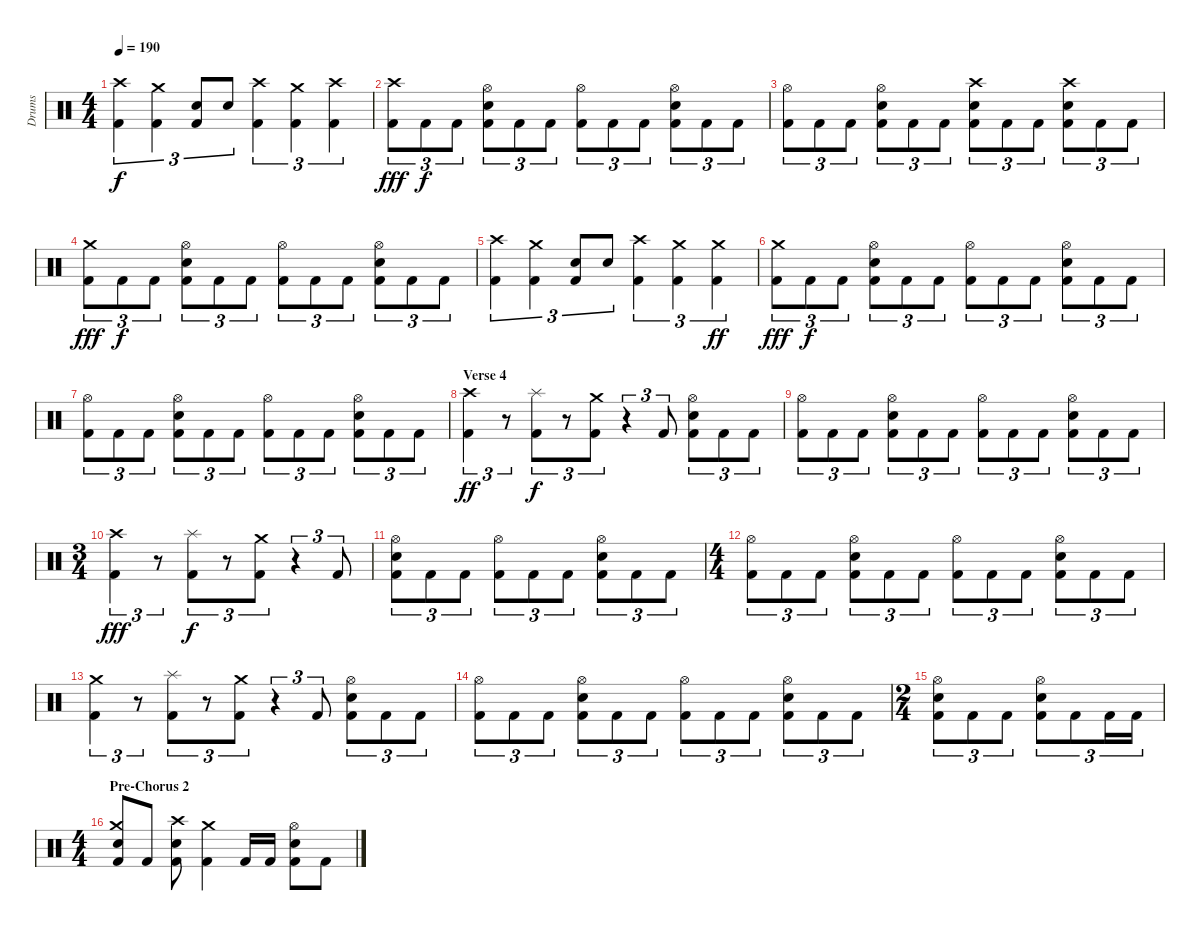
\track ("Drums" "Drums") {instrument percussion}
\staff {score}
\articulation defaults
\ts (4 4)
\tempo 190
\clef neutral
\ks c
("Crash high (hit)" "Kick (hit) 2").4{tu (3 2) dy f} ("Crash medium (hit)" "Kick (hit) 2").4{tu (3 2)} ("Snare (hit) 2" "Kick (hit) 2").8{tu (3 2)} "Snare (hit) 2".8{tu (3 2)} ("Crash high (hit)" "Kick (hit) 2").4{tu (3 2)} ("Crash medium (hit)" "Kick (hit) 2").4{tu (3 2)} ("Crash high (hit)" "Kick (hit) 2").4{tu (3 2)} |
("Crash high (hit)" "Kick (hit) 2").8{tu (3 2) dy fff} "Kick (hit) 2".8{tu (3 2) dy f} "Kick (hit) 2".8{tu (3 2)} ("Hi-Hat (open)" "Snare (hit) 2" "Kick (hit) 2").8{tu (3 2)} "Kick (hit) 2".8{tu (3 2)} "Kick (hit) 2".8{tu (3 2)} ("Hi-Hat (open)" "Kick (hit) 2").8{tu (3 2)} "Kick (hit) 2".8{tu (3 2)} "Kick (hit) 2".8{tu (3 2)} ("Hi-Hat (open)" "Snare (hit) 2" "Kick (hit) 2").8{tu (3 2)} "Kick (hit) 2".8{tu (3 2)} "Kick (hit) 2".8{tu (3 2)} |
("Hi-Hat (open)" "Kick (hit) 2").8{tu (3 2)} "Kick (hit) 2".8{tu (3 2)} "Kick (hit) 2".8{tu (3 2)} ("Hi-Hat (open)" "Snare (hit) 2" "Kick (hit) 2").8{tu (3 2)} "Kick (hit) 2".8{tu (3 2)} "Kick (hit) 2".8{tu (3 2)} ("Crash high (hit)" "Snare (hit) 2" "Kick (hit) 2").8{tu (3 2)} "Kick (hit) 2".8{tu (3 2)} "Kick (hit) 2".8{tu (3 2)} ("Crash high (hit)" "Snare (hit) 2" "Kick (hit) 2").8{tu (3 2)} "Kick (hit) 2".8{tu (3 2)} "Kick (hit) 2".8{tu (3 2)} |
("Crash medium (hit)" "Kick (hit) 2").8{tu (3 2) dy fff} "Kick (hit) 2".8{tu (3 2) dy f} "Kick (hit) 2".8{tu (3 2)} ("Hi-Hat (open)" "Snare (hit) 2" "Kick (hit) 2").8{tu (3 2)} "Kick (hit) 2".8{tu (3 2)} "Kick (hit) 2".8{tu (3 2)} ("Hi-Hat (open)" "Kick (hit) 2").8{tu (3 2)} "Kick (hit) 2".8{tu (3 2)} "Kick (hit) 2".8{tu (3 2)} ("Hi-Hat (open)" "Snare (hit) 2" "Kick (hit) 2").8{tu (3 2)} "Kick (hit) 2".8{tu (3 2)} "Kick (hit) 2".8{tu (3 2)} |
("Crash high (hit)" "Kick (hit) 2").4{tu (3 2)} ("Crash medium (hit)" "Kick (hit) 2").4{tu (3 2)} ("Snare (hit) 2" "Kick (hit) 2").8{tu (3 2)} "Snare (hit) 2".8{tu (3 2)} ("Crash high (hit)" "Kick (hit) 2").4{tu (3 2)} ("Crash medium (hit)" "Kick (hit) 2").4{tu (3 2)} ("Crash medium (hit)" "Kick (hit) 2").4{tu (3 2) dy ff} |
("Crash medium (hit)" "Kick (hit) 2").8{tu (3 2) dy fff} "Kick (hit) 2".8{tu (3 2) dy f} "Kick (hit) 2".8{tu (3 2)} ("Hi-Hat (open)" "Snare (hit) 2" "Kick (hit) 2").8{tu (3 2)} "Kick (hit) 2".8{tu (3 2)} "Kick (hit) 2".8{tu (3 2)} ("Hi-Hat (open)" "Kick (hit) 2").8{tu (3 2)} "Kick (hit) 2".8{tu (3 2)} "Kick (hit) 2".8{tu (3 2)} ("Hi-Hat (open)" "Snare (hit) 2" "Kick (hit) 2").8{tu (3 2)} "Kick (hit) 2".8{tu (3 2)} "Kick (hit) 2".8{tu (3 2)} |
("Hi-Hat (open)" "Kick (hit) 2").8{tu (3 2)} "Kick (hit) 2".8{tu (3 2)} "Kick (hit) 2".8{tu (3 2)} ("Hi-Hat (open)" "Snare (hit) 2" "Kick (hit) 2").8{tu (3 2)} "Kick (hit) 2".8{tu (3 2)} "Kick (hit) 2".8{tu (3 2)} ("Hi-Hat (open)" "Kick (hit) 2").8{tu (3 2)} "Kick (hit) 2".8{tu (3 2)} "Kick (hit) 2".8{tu (3 2)} ("Hi-Hat (open)" "Snare (hit) 2" "Kick (hit) 2").8{tu (3 2)} "Kick (hit) 2".8{tu (3 2)} "Kick (hit) 2".8{tu (3 2)} |
\section ("" "Verse 4")
("Crash high (hit)" "Kick (hit) 2").4{tu (3 2) dy ff} r.8{tu (3 2)} ("Splash (hit)" "Kick (hit) 2").8{tu (3 2) dy f} r.8{tu (3 2)} ("Crash medium (hit)" "Kick (hit) 2").8{tu (3 2)} r.4{tu (3 2)} "Kick (hit) 2".8{tu (3 2)} ("Hi-Hat (open)" "Snare (hit) 2" "Kick (hit) 2").8{tu (3 2)} "Kick (hit) 2".8{tu (3 2)} "Kick (hit) 2".8{tu (3 2)} |
("Hi-Hat (open)" "Kick (hit) 2").8{tu (3 2)} "Kick (hit) 2".8{tu (3 2)} "Kick (hit) 2".8{tu (3 2)} ("Hi-Hat (open)" "Snare (hit) 2" "Kick (hit) 2").8{tu (3 2)} "Kick (hit) 2".8{tu (3 2)} "Kick (hit) 2".8{tu (3 2)} ("Hi-Hat (open)" "Kick (hit) 2").8{tu (3 2)} "Kick (hit) 2".8{tu (3 2)} "Kick (hit) 2".8{tu (3 2)} ("Hi-Hat (open)" "Snare (hit) 2" "Kick (hit) 2").8{tu (3 2)} "Kick (hit) 2".8{tu (3 2)} "Kick (hit) 2".8{tu (3 2)} |
\ts (3 4)
("Crash high (hit)" "Kick (hit) 2").4{tu (3 2) dy fff} r.8{tu (3 2)} ("Splash (hit)" "Kick (hit) 2").8{tu (3 2) dy f} r.8{tu (3 2)} ("Crash medium (hit)" "Kick (hit) 2").8{tu (3 2)} r.4{tu (3 2)} "Kick (hit) 2".8{tu (3 2)} |
("Hi-Hat (open)" "Snare (hit) 2" "Kick (hit) 2").8{tu (3 2)} "Kick (hit) 2".8{tu (3 2)} "Kick (hit) 2".8{tu (3 2)} ("Hi-Hat (open)" "Kick (hit) 2").8{tu (3 2)} "Kick (hit) 2".8{tu (3 2)} "Kick (hit) 2".8{tu (3 2)} ("Hi-Hat (open)" "Snare (hit) 2" "Kick (hit) 2").8{tu (3 2)} "Kick (hit) 2".8{tu (3 2)} "Kick (hit) 2".8{tu (3 2)} |
\ts (4 4)
("Hi-Hat (open)" "Kick (hit) 2").8{tu (3 2)} "Kick (hit) 2".8{tu (3 2)} "Kick (hit) 2".8{tu (3 2)} ("Hi-Hat (open)" "Snare (hit) 2" "Kick (hit) 2").8{tu (3 2)} "Kick (hit) 2".8{tu (3 2)} "Kick (hit) 2".8{tu (3 2)} ("Hi-Hat (open)" "Kick (hit) 2").8{tu (3 2)} "Kick (hit) 2".8{tu (3 2)} "Kick (hit) 2".8{tu (3 2)} ("Hi-Hat (open)" "Snare (hit) 2" "Kick (hit) 2").8{tu (3 2)} "Kick (hit) 2".8{tu (3 2)} "Kick (hit) 2".8{tu (3 2)} |
("Crash medium (hit)" "Kick (hit) 2").4{tu (3 2)} r.8{tu (3 2)} ("Splash (hit)" "Kick (hit) 2").8{tu (3 2)} r.8{tu (3 2)} ("Crash medium (hit)" "Kick (hit) 2").8{tu (3 2)} r.4{tu (3 2)} "Kick (hit) 2".8{tu (3 2)} ("Hi-Hat (open)" "Snare (hit) 2" "Kick (hit) 2").8{tu (3 2)} "Kick (hit) 2".8{tu (3 2)} "Kick (hit) 2".8{tu (3 2)} |
("Hi-Hat (open)" "Kick (hit) 2").8{tu (3 2)} "Kick (hit) 2".8{tu (3 2)} "Kick (hit) 2".8{tu (3 2)} ("Hi-Hat (open)" "Snare (hit) 2" "Kick (hit) 2").8{tu (3 2)} "Kick (hit) 2".8{tu (3 2)} "Kick (hit) 2".8{tu (3 2)} ("Hi-Hat (open)" "Kick (hit) 2").8{tu (3 2)} "Kick (hit) 2".8{tu (3 2)} "Kick (hit) 2".8{tu (3 2)} ("Hi-Hat (open)" "Snare (hit) 2" "Kick (hit) 2").8{tu (3 2)} "Kick (hit) 2".8{tu (3 2)} "Kick (hit) 2".8{tu (3 2)} |
\ts (2 4)
("Hi-Hat (open)" "Snare (hit) 2" "Kick (hit) 2").8{tu (3 2)} "Kick (hit) 2".8{tu (3 2)} "Kick (hit) 2".8{tu (3 2)} ("Hi-Hat (open)" "Snare (hit) 2" "Kick (hit) 2").8{tu (3 2)} "Kick (hit) 2".8{tu (3 2)} "Kick (hit) 2".16{tu (3 2)} "Kick (hit) 2".16{tu (3 2)} |
\ts (4 4)
\section ("" "Pre-Chorus 2")
("Crash medium (hit)" "Snare (hit) 2" "Kick (hit) 2").8 "Kick (hit) 2".8 ("Crash high (hit)" "Snare (hit) 2" "Kick (hit) 2").8 ("Crash medium (hit)" "Kick (hit) 2").4 "Kick (hit) 2".16 "Kick (hit) 2".16 ("Hi-Hat (open)" "Snare (hit) 2" "Kick (hit) 2").8 "Kick (hit) 2".8
